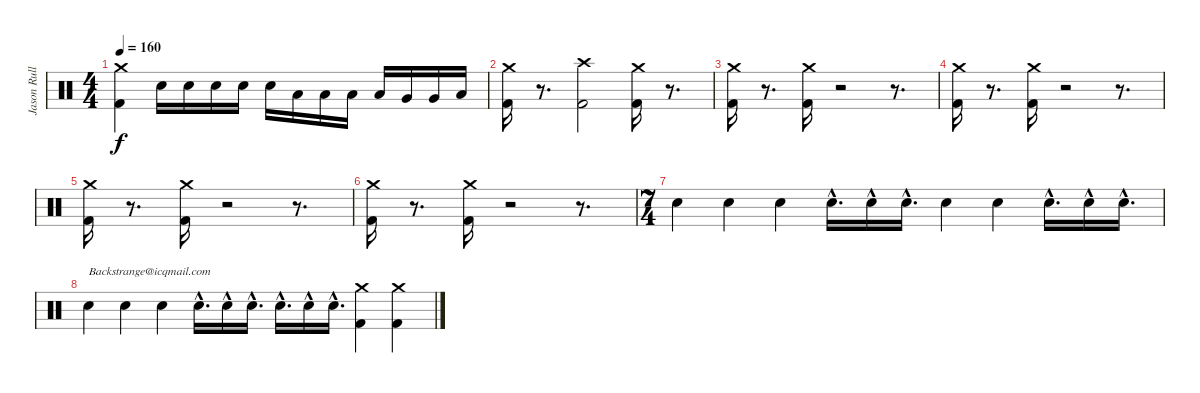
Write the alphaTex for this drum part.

\track ("Jason Rullo" "Jason Rull") {instrument percussion}
\staff {score}
\articulation defaults
\ts (4 4)
\tempo 160
\clef neutral
\ks c
("Crash medium (hit)" "Kick (hit) 2").4{dy f} "Electric Snare (hit)".16 "Electric Snare (hit)".16 "Electric Snare (hit)".16 "Electric Snare (hit)".16 "Electric Snare (hit)".16 "Low Tom (hit)".16 "Low Tom (hit)".16 "Low Tom (hit)".16 "Low Tom (hit)".16 "Very Low Tom (hit)".16 "Very Low Tom (hit)".16 "Low Floor Tom (hit)".16 |
("Crash medium (hit)" "Kick (hit) 2").16 r.8{d} ("Crash high (hit)" "Kick (hit) 2").2 ("Crash medium (hit)" "Kick (hit) 2").16 r.8{d} |
("Crash medium (hit)" "Kick (hit) 2").16 r.8{d} ("Crash medium (hit)" "Kick (hit) 2").16 r.2 r.8{d} |
("Crash medium (hit)" "Kick (hit) 2").16 r.8{d} ("Crash medium (hit)" "Kick (hit) 2").16 r.2 r.8{d} |
("Crash medium (hit)" "Kick (hit) 2").16 r.8{d} ("Crash medium (hit)" "Kick (hit) 2").16 r.2 r.8{d} |
("Crash medium (hit)" "Kick (hit) 2").16 r.8{d} ("Crash medium (hit)" "Kick (hit) 2").16 r.2 r.8{d} |
\ts (7 4)
"Electric Snare (hit)".4 "Electric Snare (hit)".4 "Electric Snare (hit)".4 "Electric Snare (hit)"{hac}.16{d} "Electric Snare (hit)"{hac}.16 "Electric Snare (hit)"{hac}.16{d} "Electric Snare (hit)".4 "Electric Snare (hit)".4 "Electric Snare (hit)"{hac}.16{d} "Electric Snare (hit)"{hac}.16 "Electric Snare (hit)"{hac}.16{d} |
"Electric Snare (hit)".4{txt "Backstrange@icqmail.com"} "Electric Snare (hit)".4 "Electric Snare (hit)".4 "Electric Snare (hit)"{hac}.16{d} "Electric Snare (hit)"{hac}.16 "Electric Snare (hit)"{hac}.16{d} "Electric Snare (hit)"{hac}.16{d} "Electric Snare (hit)"{hac}.16 "Electric Snare (hit)"{hac}.16{d} ("Crash medium (hit)" "Kick (hit) 2").4 ("Kick (hit) 2" "Crash medium (hit)").4
